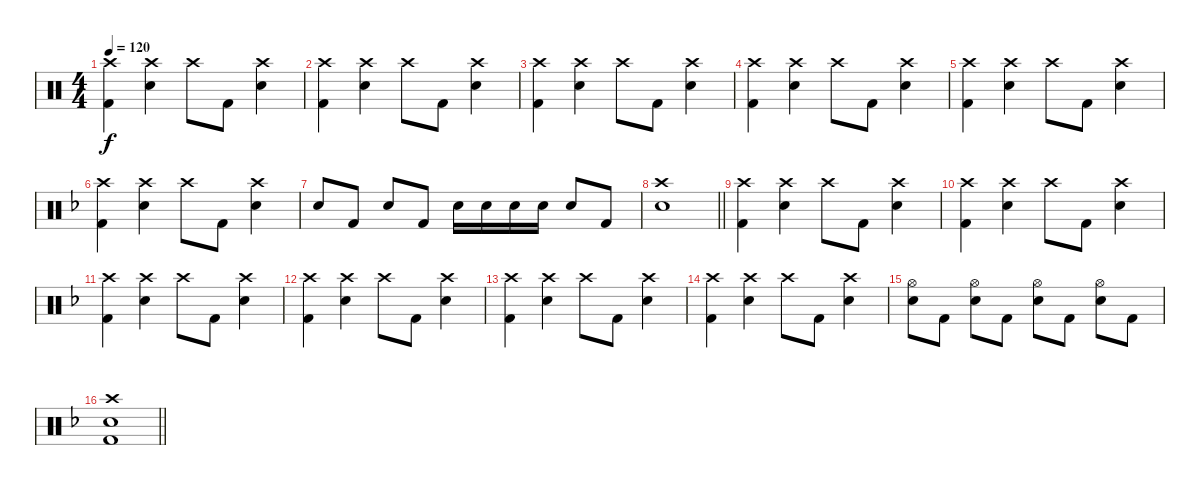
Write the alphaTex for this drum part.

\track "" {mute instrument percussion}
\staff {score}
\articulation defaults
\ts (4 4)
\tempo 120
\clef neutral
\ks c
("Kick (hit) 2" "Crash high (hit)").4{dy f} ("Snare (hit) 2" "Crash high (hit)").4 "Crash high (hit)".8 "Kick (hit) 2".8 ("Snare (hit) 2" "Crash high (hit)").4 |
("Kick (hit) 2" "Crash high (hit)").4 ("Snare (hit) 2" "Crash high (hit)").4 "Crash high (hit)".8 "Kick (hit) 2".8 ("Snare (hit) 2" "Crash high (hit)").4 |
("Kick (hit) 2" "Crash high (hit)").4 ("Snare (hit) 2" "Crash high (hit)").4 "Crash high (hit)".8 "Kick (hit) 2".8 ("Snare (hit) 2" "Crash high (hit)").4 |
("Kick (hit) 2" "Crash high (hit)").4 ("Snare (hit) 2" "Crash high (hit)").4 "Crash high (hit)".8 "Kick (hit) 2".8 ("Snare (hit) 2" "Crash high (hit)").4 |
("Kick (hit) 2" "Crash high (hit)").4 ("Snare (hit) 2" "Crash high (hit)").4 "Crash high (hit)".8 "Kick (hit) 2".8 ("Snare (hit) 2" "Crash high (hit)").4 |
\ks f
("Kick (hit) 2" "Crash high (hit)").4 ("Snare (hit) 2" "Crash high (hit)").4 "Crash high (hit)".8 "Kick (hit) 2".8 ("Snare (hit) 2" "Crash high (hit)").4 |
"Snare (hit) 2".8 "Kick (hit) 2".8 "Snare (hit) 2".8 "Kick (hit) 2".8 "Snare (hit) 2".16 "Snare (hit) 2".16 "Snare (hit) 2".16 "Snare (hit) 2".16 "Snare (hit) 2".8 "Kick (hit) 2".8 |
\barLineRight lightlight
("Snare (hit) 2" "Crash high (hit)").1 |
("Kick (hit) 2" "Crash high (hit)").4 ("Snare (hit) 2" "Crash high (hit)").4 "Crash high (hit)".8 "Kick (hit) 2".8 ("Snare (hit) 2" "Crash high (hit)").4 |
("Kick (hit) 2" "Crash high (hit)").4 ("Snare (hit) 2" "Crash high (hit)").4 "Crash high (hit)".8 "Kick (hit) 2".8 ("Snare (hit) 2" "Crash high (hit)").4 |
("Kick (hit) 2" "Crash high (hit)").4 ("Snare (hit) 2" "Crash high (hit)").4 "Crash high (hit)".8 "Kick (hit) 2".8 ("Snare (hit) 2" "Crash high (hit)").4 |
("Kick (hit) 2" "Crash high (hit)").4 ("Snare (hit) 2" "Crash high (hit)").4 "Crash high (hit)".8 "Kick (hit) 2".8 ("Snare (hit) 2" "Crash high (hit)").4 |
("Kick (hit) 2" "Crash high (hit)").4 ("Snare (hit) 2" "Crash high (hit)").4 "Crash high (hit)".8 "Kick (hit) 2".8 ("Snare (hit) 2" "Crash high (hit)").4 |
("Kick (hit) 2" "Crash high (hit)").4 ("Snare (hit) 2" "Crash high (hit)").4 "Crash high (hit)".8 "Kick (hit) 2".8 ("Snare (hit) 2" "Crash high (hit)").4 |
("Snare (hit) 2" "Hi-Hat (open)").8 "Kick (hit) 2".8 ("Snare (hit) 2" "Hi-Hat (open)").8 "Kick (hit) 2".8 ("Snare (hit) 2" "Hi-Hat (open)").8 "Kick (hit) 2".8 ("Snare (hit) 2" "Hi-Hat (open)").8 "Kick (hit) 2".8 |
\barLineRight lightlight
("Kick (hit) 2" "Snare (hit) 2" "Crash high (hit)").1
